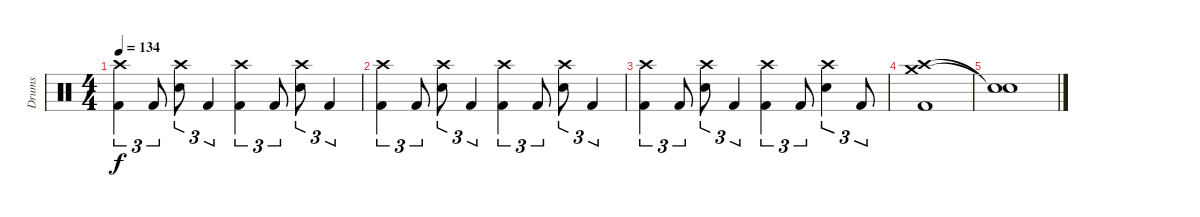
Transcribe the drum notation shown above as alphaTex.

\track ("Drums" "Drums") {instrument percussion}
\staff {score}
\articulation defaults
\ts (4 4)
\tempo 134
\clef neutral
\ks c
("Crash high (hit)" "Kick (hit) 2").4{tu (3 2) dy f} "Kick (hit) 2".8{tu (3 2)} ("Crash high (hit)" "Electric Snare (hit)").8{tu (3 2)} "Kick (hit) 2".4{tu (3 2)} ("Crash high (hit)" "Kick (hit) 2").4{tu (3 2)} "Kick (hit) 2".8{tu (3 2)} ("Crash high (hit)" "Electric Snare (hit)").8{tu (3 2)} "Kick (hit) 2".4{tu (3 2)} |
("Crash high (hit)" "Kick (hit) 2").4{tu (3 2)} "Kick (hit) 2".8{tu (3 2)} ("Crash high (hit)" "Electric Snare (hit)").8{tu (3 2)} "Kick (hit) 2".4{tu (3 2)} ("Crash high (hit)" "Kick (hit) 2").4{tu (3 2)} "Kick (hit) 2".8{tu (3 2)} ("Crash high (hit)" "Electric Snare (hit)").8{tu (3 2)} "Kick (hit) 2".4{tu (3 2)} |
("Crash high (hit)" "Kick (hit) 2").4{tu (3 2)} "Kick (hit) 2".8{tu (3 2)} ("Crash high (hit)" "Electric Snare (hit)").8{tu (3 2)} "Kick (hit) 2".4{tu (3 2)} ("Crash high (hit)" "Kick (hit) 2").4{tu (3 2)} "Kick (hit) 2".8{tu (3 2)} ("Crash high (hit)" "Electric Snare (hit)").4{tu (3 2)} "Kick (hit) 2".8{tu (3 2)} |
("Crash high (hit)" "Crash medium (hit)" "Kick (hit) 2").1 |
("Snare (hit)"{t} "Snare (hit)"{t}).1
